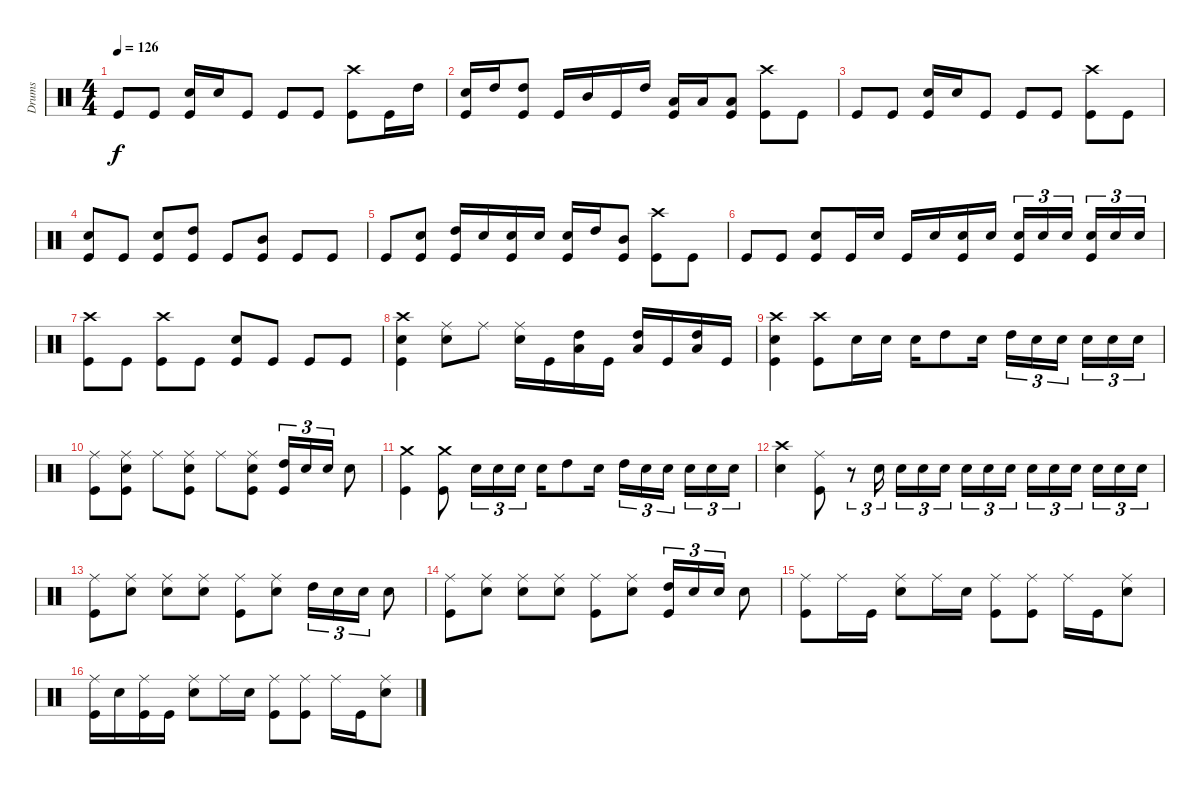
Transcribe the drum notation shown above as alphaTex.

\track ("Drums" "Drums") {instrument percussion}
\staff {score}
\articulation defaults
\ts (4 4)
\tempo 126
\clef neutral
\ks c "Kick (hit)".8{dy f} "Kick (hit)".8
("Electric Snare (hit)" "Kick (hit)").16 "Electric Snare (hit)".16 "Kick (hit)".8 "Kick (hit)".8 "Kick (hit)".8 ("Crash high (hit)" "Kick (hit)").8 "Kick (hit)".16 "High Tom (hit)".16 |
("Electric Snare (hit)" "Kick (hit)").16 "High Tom (hit)".16 ("High Tom (hit)" "Kick (hit)").8 "Kick (hit)".16 "Mid Tom (hit)".16 "Kick (hit)".16 "High Tom (hit)".16 ("Low Floor Tom (hit)" "Kick (hit)").16 "Low Floor Tom (hit)".16 ("Low Floor Tom (hit)" "Kick (hit)").8 ("Crash high (hit)" "Kick (hit)").8 "Kick (hit)".8 |
"Kick (hit)".8 "Kick (hit)".8 ("Electric Snare (hit)" "Kick (hit)").16 "Electric Snare (hit)".16 "Kick (hit)".8 "Kick (hit)".8 "Kick (hit)".8 ("Crash high (hit)" "Kick (hit)").8 "Kick (hit)".8 |
("Electric Snare (hit)" "Kick (hit)").8 "Kick (hit)".8 ("Electric Snare (hit)" "Kick (hit)").8 ("High Tom (hit)" "Kick (hit)").8 "Kick (hit)".8 ("Mid Tom (hit)" "Kick (hit)").8 "Kick (hit)".8 "Kick (hit)".8 |
"Kick (hit)".8 ("Electric Snare (hit)" "Kick (hit)").8 ("High Tom (hit)" "Kick (hit)").16 "Electric Snare (hit)".16 ("Electric Snare (hit)" "Kick (hit)").16 "Electric Snare (hit)".16 ("Electric Snare (hit)" "Kick (hit)").16 "High Tom (hit)".16 ("Mid Tom (hit)" "Kick (hit)").8 ("Crash high (hit)" "Kick (hit)").8 "Kick (hit)".8 |
"Kick (hit)".8 "Kick (hit)".8 ("Electric Snare (hit)" "Kick (hit)").8 "Kick (hit)".16 "Electric Snare (hit)".16 "Kick (hit)".16 "Electric Snare (hit)".16 ("Electric Snare (hit)" "Kick (hit)").16 "Electric Snare (hit)".16 ("Electric Snare (hit)" "Kick (hit)").16{tu (3 2)} "Electric Snare (hit)".16{tu (3 2)} "Electric Snare (hit)".16{tu (3 2) beam splitsecondary} ("Electric Snare (hit)" "Kick (hit)").16{tu (3 2)} "Electric Snare (hit)".16{tu (3 2)} "Electric Snare (hit)".16{tu (3 2)} |
("Crash high (hit)" "Kick (hit)").8 "Kick (hit)".8 ("Crash high (hit)" "Kick (hit)").8 "Kick (hit)".8 ("Electric Snare (hit)" "Kick (hit)").8 "Kick (hit)".8 "Kick (hit)".8 "Kick (hit)".8 |
("Crash high (hit)" "Electric Snare (hit)" "Kick (hit)").4 ("Ride (middle)" "Electric Snare (hit)").8 "Ride (middle)".8 ("Ride (middle)" "Electric Snare (hit)").16 "Kick (hit)".16 ("High Tom (hit)" "Low Floor Tom (hit)").16 "Kick (hit)".16 ("High Tom (hit)" "Low Floor Tom (hit)").16 "Kick (hit)".16 ("High Tom (hit)" "Low Floor Tom (hit)").16 "Kick (hit)".16 |
("Crash high (hit)" "Electric Snare (hit)" "Kick (hit)").4 ("Crash high (hit)" "Kick (hit)").8 "Electric Snare (hit)".16 "Electric Snare (hit)".16 "Electric Snare (hit)".16 "High Tom (hit)".8 "Electric Snare (hit)".16 "High Tom (hit)".16{tu (3 2)} "Electric Snare (hit)".16{tu (3 2)} "Electric Snare (hit)".16{tu (3 2) beam splitsecondary} "Electric Snare (hit)".16{tu (3 2)} "Electric Snare (hit)".16{tu (3 2)} "Electric Snare (hit)".16{tu (3 2)} |
("Ride (middle)" "Kick (hit)").8 ("Ride (middle)" "Electric Snare (hit)" "Kick (hit)").8 "Ride (middle)".8 ("Ride (middle)" "Electric Snare (hit)" "Kick (hit)").8 "Ride (middle)".8 ("Ride (middle)" "Electric Snare (hit)" "Kick (hit)").8 ("High Tom (hit)" "Kick (hit)").16{tu (3 2)} "Electric Snare (hit)".16{tu (3 2)} "Electric Snare (hit)".16{tu (3 2)} "Electric Snare (hit)".8 |
("Crash medium (hit)" "Kick (hit)").4 ("Crash medium (hit)" "Kick (hit)").8 "Electric Snare (hit)".16{tu (3 2)} "Electric Snare (hit)".16{tu (3 2)} "Electric Snare (hit)".16{tu (3 2)} "Electric Snare (hit)".16 "High Tom (hit)".8 "Electric Snare (hit)".16 "High Tom (hit)".16{tu (3 2)} "Electric Snare (hit)".16{tu (3 2)} "Electric Snare (hit)".16{tu (3 2) beam splitsecondary} "Electric Snare (hit)".16{tu (3 2)} "Electric Snare (hit)".16{tu (3 2)} "Electric Snare (hit)".16{tu (3 2)} |
("Crash high (hit)" "Electric Snare (hit)").4 ("Ride (middle)" "Kick (hit)").8 r.8{tu (3 2)} "Electric Snare (hit)".16{tu (3 2)} "Electric Snare (hit)".16{tu (3 2)} "Electric Snare (hit)".16{tu (3 2)} "Electric Snare (hit)".16{tu (3 2) beam splitsecondary} "Electric Snare (hit)".16{tu (3 2)} "Electric Snare (hit)".16{tu (3 2)} "Electric Snare (hit)".16{tu (3 2)} "Electric Snare (hit)".16{tu (3 2)} "Electric Snare (hit)".16{tu (3 2)} "Electric Snare (hit)".16{tu (3 2) beam splitsecondary} "Electric Snare (hit)".16{tu (3 2)} "Electric Snare (hit)".16{tu (3 2)} "Electric Snare (hit)".16{tu (3 2)} |
("Ride (middle)" "Kick (hit)").8 ("Ride (middle)" "Electric Snare (hit)").8 ("Ride (middle)" "Electric Snare (hit)").8 ("Ride (middle)" "Electric Snare (hit)").8 ("Ride (middle)" "Kick (hit)").8 ("Ride (middle)" "Electric Snare (hit)").8 "High Tom (hit)".16{tu (3 2)} "Electric Snare (hit)".16{tu (3 2)} "Electric Snare (hit)".16{tu (3 2)} "Electric Snare (hit)".8 |
("Ride (middle)" "Kick (hit)").8 ("Ride (middle)" "Electric Snare (hit)").8 ("Ride (middle)" "Electric Snare (hit)").8 ("Ride (middle)" "Electric Snare (hit)").8 ("Ride (middle)" "Kick (hit)").8 ("Ride (middle)" "Electric Snare (hit)").8 ("High Tom (hit)" "Kick (hit)").16{tu (3 2)} "Electric Snare (hit)".16{tu (3 2)} "Electric Snare (hit)".16{tu (3 2)} "Electric Snare (hit)".8 |
("Ride (middle)" "Kick (hit)").8 "Ride (middle)".16 "Kick (hit)".16 ("Ride (middle)" "Electric Snare (hit)").8 "Ride (middle)".16 "Electric Snare (hit)".16 ("Ride (middle)" "Kick (hit)").8 ("Ride (middle)" "Kick (hit)").8 "Ride (middle)".16 "Kick (hit)".16 ("Ride (middle)" "Electric Snare (hit)").8 |
("Ride (middle)" "Kick (hit)").16 "Electric Snare (hit)".16 ("Ride (middle)" "Kick (hit)").16 "Kick (hit)".16 ("Ride (middle)" "Electric Snare (hit)").8 "Ride (middle)".16 "Electric Snare (hit)".16 ("Ride (middle)" "Kick (hit)").8 ("Ride (middle)" "Kick (hit)").8 "Ride (middle)".16 "Kick (hit)".16 ("Ride (middle)" "Electric Snare (hit)").8
